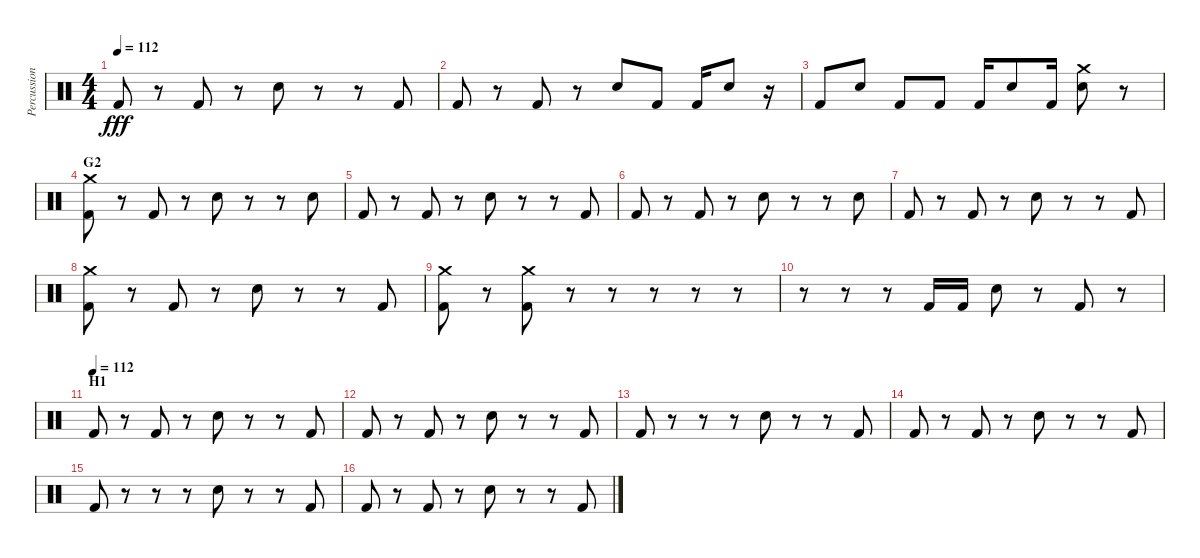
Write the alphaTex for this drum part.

\track ("Percussion" "Percussion") {instrument percussion}
\staff {score}
\articulation defaults
\ts (4 4)
\tempo 112
\clef neutral
\ks c "Kick (hit) 2".8{dy fff}
r.8 "Kick (hit) 2".8 r.8 "Electric Snare (hit)".8 r.8 r.8 "Kick (hit) 2".8 |
"Kick (hit) 2".8 r.8 "Kick (hit) 2".8 r.8 "Electric Snare (hit)".8 "Kick (hit) 2".8 "Kick (hit) 2".16 "Electric Snare (hit)".8 r.16 |
"Kick (hit) 2".8 "Electric Snare (hit)".8 "Kick (hit) 2".8 "Kick (hit) 2".8 "Kick (hit) 2".16 "Electric Snare (hit)".8 "Kick (hit) 2".16 ("Electric Snare (hit)" "Crash medium (hit)").8 r.8 |
\section ("" "G2")
("Kick (hit) 2" "Crash medium (hit)").8 r.8 "Kick (hit) 2".8 r.8 "Electric Snare (hit)".8 r.8 r.8 "Electric Snare (hit)".8 |
"Kick (hit) 2".8 r.8 "Kick (hit) 2".8 r.8 "Electric Snare (hit)".8 r.8 r.8 "Kick (hit) 2".8 |
"Kick (hit) 2".8 r.8 "Kick (hit) 2".8 r.8 "Electric Snare (hit)".8 r.8 r.8 "Electric Snare (hit)".8 |
"Kick (hit) 2".8 r.8 "Kick (hit) 2".8 r.8 "Electric Snare (hit)".8 r.8 r.8 "Kick (hit) 2".8 |
("Kick (hit) 2" "Crash medium (hit)").8 r.8 "Kick (hit) 2".8 r.8 "Electric Snare (hit)".8 r.8 r.8 "Kick (hit) 2".8 |
("Kick (hit) 2" "Crash medium (hit)").8 r.8 ("Kick (hit) 2" "Crash medium (hit)").8 r.8 r.8 r.8 r.8 r.8 |
r.8 r.8 r.8 "Kick (hit) 2".16 "Kick (hit) 2".16 "Electric Snare (hit)".8 r.8 "Kick (hit) 2".8 r.8 |
\section ("" "H1")
\tempo (112)
"Kick (hit) 2".8 r.8 "Kick (hit) 2".8 r.8 "Electric Snare (hit)".8 r.8 r.8 "Kick (hit) 2".8 |
"Kick (hit) 2".8 r.8 "Kick (hit) 2".8 r.8 "Electric Snare (hit)".8 r.8 r.8 "Kick (hit) 2".8 |
"Kick (hit) 2".8 r.8 r.8 r.8 "Electric Snare (hit)".8 r.8 r.8 "Kick (hit) 2".8 |
"Kick (hit) 2".8 r.8 "Kick (hit) 2".8 r.8 "Electric Snare (hit)".8 r.8 r.8 "Kick (hit) 2".8 |
"Kick (hit) 2".8 r.8 r.8 r.8 "Electric Snare (hit)".8 r.8 r.8 "Kick (hit) 2".8 |
"Kick (hit) 2".8 r.8 "Kick (hit) 2".8 r.8 "Electric Snare (hit)".8 r.8 r.8 "Kick (hit) 2".8
